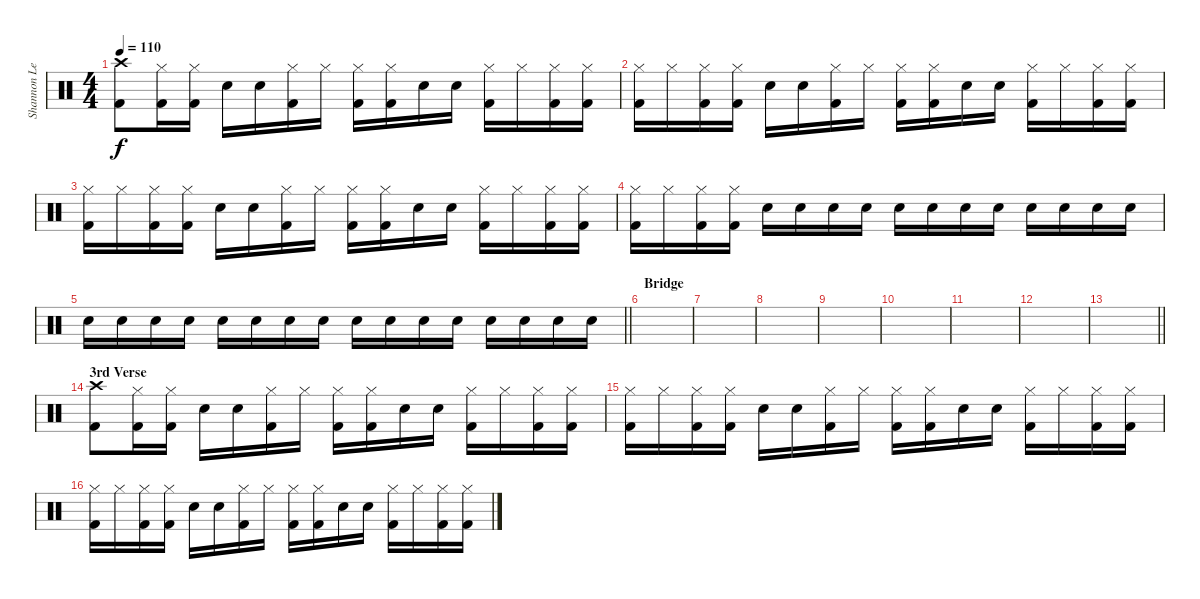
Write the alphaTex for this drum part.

\track ("Shannon Leto [Drums]" "Shannon Le") {instrument percussion}
\staff {score}
\articulation defaults
\ts (4 4)
\tempo 110
\clef neutral
\ks c
("Crash high (hit)" "Kick (hit) 2").8{dy f} ("Hi-Hat (closed)" "Kick (hit) 2").16 ("Hi-Hat (closed)" "Kick (hit) 2").16 "Electric Snare (hit)".16 "Electric Snare (hit)".16 ("Hi-Hat (closed)" "Kick (hit) 2").16 "Hi-Hat (closed)".16 ("Hi-Hat (closed)" "Kick (hit) 2").16 ("Hi-Hat (closed)" "Kick (hit) 2").16 "Electric Snare (hit)".16 "Electric Snare (hit)".16 ("Hi-Hat (closed)" "Kick (hit) 2").16 "Hi-Hat (closed)".16 ("Hi-Hat (closed)" "Kick (hit) 2").16 ("Hi-Hat (closed)" "Kick (hit) 2").16 |
("Hi-Hat (closed)" "Kick (hit) 2").16 "Hi-Hat (closed)".16 ("Hi-Hat (closed)" "Kick (hit) 2").16 ("Hi-Hat (closed)" "Kick (hit) 2").16 "Electric Snare (hit)".16 "Electric Snare (hit)".16 ("Hi-Hat (closed)" "Kick (hit) 2").16 "Hi-Hat (closed)".16 ("Hi-Hat (closed)" "Kick (hit) 2").16 ("Hi-Hat (closed)" "Kick (hit) 2").16 "Electric Snare (hit)".16 "Electric Snare (hit)".16 ("Hi-Hat (closed)" "Kick (hit) 2").16 "Hi-Hat (closed)".16 ("Hi-Hat (closed)" "Kick (hit) 2").16 ("Hi-Hat (closed)" "Kick (hit) 2").16 |
("Hi-Hat (closed)" "Kick (hit) 2").16 "Hi-Hat (closed)".16 ("Hi-Hat (closed)" "Kick (hit) 2").16 ("Hi-Hat (closed)" "Kick (hit) 2").16 "Electric Snare (hit)".16 "Electric Snare (hit)".16 ("Hi-Hat (closed)" "Kick (hit) 2").16 "Hi-Hat (closed)".16 ("Hi-Hat (closed)" "Kick (hit) 2").16 ("Hi-Hat (closed)" "Kick (hit) 2").16 "Electric Snare (hit)".16 "Electric Snare (hit)".16 ("Hi-Hat (closed)" "Kick (hit) 2").16 "Hi-Hat (closed)".16 ("Hi-Hat (closed)" "Kick (hit) 2").16 ("Hi-Hat (closed)" "Kick (hit) 2").16 |
("Hi-Hat (closed)" "Kick (hit) 2").16 "Hi-Hat (closed)".16 ("Hi-Hat (closed)" "Kick (hit) 2").16 ("Hi-Hat (closed)" "Kick (hit) 2").16 "Electric Snare (hit)".16{volume 6} "Electric Snare (hit)".16 "Electric Snare (hit)".16 "Electric Snare (hit)".16{volume 9} "Electric Snare (hit)".16 "Electric Snare (hit)".16 "Electric Snare (hit)".16 "Electric Snare (hit)".16{volume 11} "Electric Snare (hit)".16 "Electric Snare (hit)".16 "Electric Snare (hit)".16{volume 13} "Electric Snare (hit)".16 |
\barLineRight lightlight "Electric Snare (hit)".16 "Electric Snare (hit)".16 "Electric Snare (hit)".16 "Electric Snare (hit)".16 "Electric Snare (hit)".16 "Electric Snare (hit)".16 "Electric Snare (hit)".16 "Electric Snare (hit)".16 "Electric Snare (hit)".16 "Electric Snare (hit)".16 "Electric Snare (hit)".16 "Electric Snare (hit)".16 "Electric Snare (hit)".16 "Electric Snare (hit)".16 "Electric Snare (hit)".16 "Electric Snare (hit)".16
|
\section ("" "Bridge")
|
|
|
|
|
|
|
\barLineRight lightlight
|
\section ("" "3rd Verse")
("Crash high (hit)" "Kick (hit) 2").8 ("Hi-Hat (closed)" "Kick (hit) 2").16 ("Hi-Hat (closed)" "Kick (hit) 2").16 "Electric Snare (hit)".16 "Electric Snare (hit)".16 ("Hi-Hat (closed)" "Kick (hit) 2").16 "Hi-Hat (closed)".16 ("Hi-Hat (closed)" "Kick (hit) 2").16 ("Hi-Hat (closed)" "Kick (hit) 2").16 "Electric Snare (hit)".16 "Electric Snare (hit)".16 ("Hi-Hat (closed)" "Kick (hit) 2").16 "Hi-Hat (closed)".16 ("Hi-Hat (closed)" "Kick (hit) 2").16 ("Hi-Hat (closed)" "Kick (hit) 2").16 |
("Hi-Hat (closed)" "Kick (hit) 2").16 "Hi-Hat (closed)".16 ("Hi-Hat (closed)" "Kick (hit) 2").16 ("Hi-Hat (closed)" "Kick (hit) 2").16 "Electric Snare (hit)".16 "Electric Snare (hit)".16 ("Hi-Hat (closed)" "Kick (hit) 2").16 "Hi-Hat (closed)".16 ("Hi-Hat (closed)" "Kick (hit) 2").16 ("Hi-Hat (closed)" "Kick (hit) 2").16 "Electric Snare (hit)".16 "Electric Snare (hit)".16 ("Hi-Hat (closed)" "Kick (hit) 2").16 "Hi-Hat (closed)".16 ("Hi-Hat (closed)" "Kick (hit) 2").16 ("Hi-Hat (closed)" "Kick (hit) 2").16 |
("Hi-Hat (closed)" "Kick (hit) 2").16 "Hi-Hat (closed)".16 ("Hi-Hat (closed)" "Kick (hit) 2").16 ("Hi-Hat (closed)" "Kick (hit) 2").16 "Electric Snare (hit)".16 "Electric Snare (hit)".16 ("Hi-Hat (closed)" "Kick (hit) 2").16 "Hi-Hat (closed)".16 ("Hi-Hat (closed)" "Kick (hit) 2").16 ("Hi-Hat (closed)" "Kick (hit) 2").16 "Electric Snare (hit)".16 "Electric Snare (hit)".16 ("Hi-Hat (closed)" "Kick (hit) 2").16 "Hi-Hat (closed)".16 ("Hi-Hat (closed)" "Kick (hit) 2").16 ("Hi-Hat (closed)" "Kick (hit) 2").16
